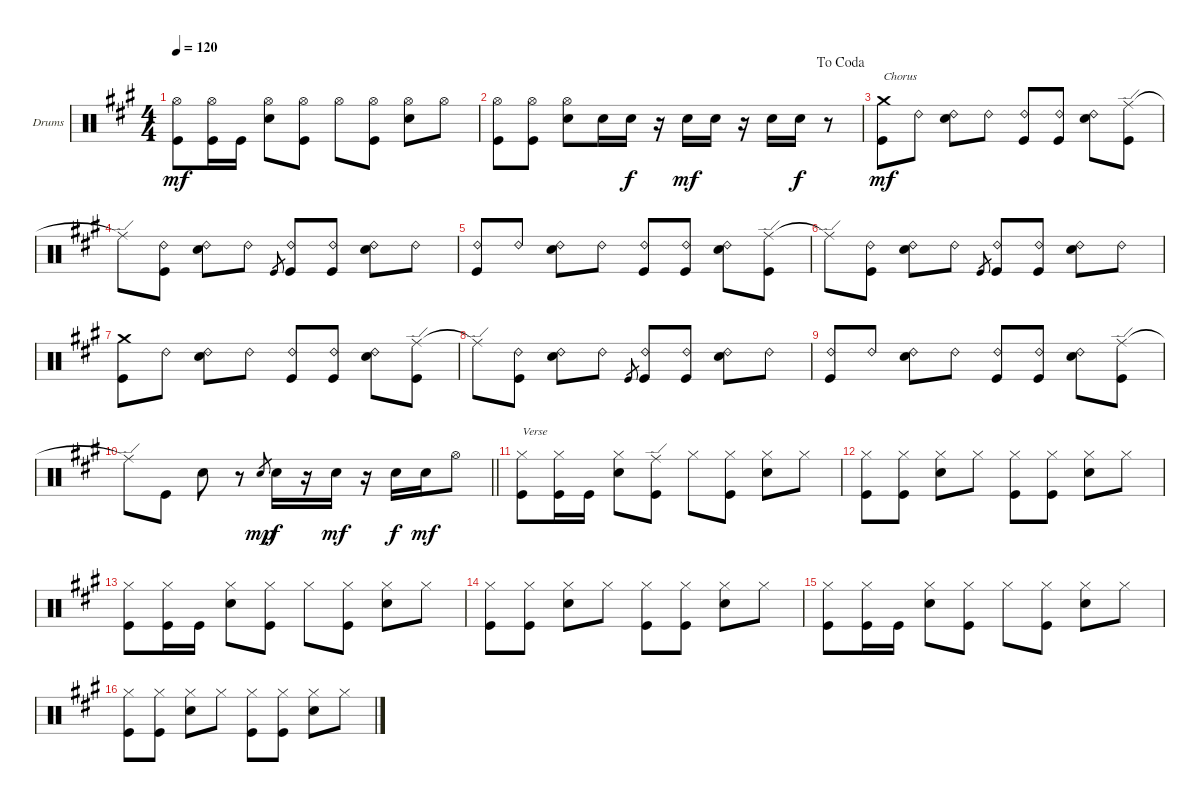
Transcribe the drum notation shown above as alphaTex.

\bracketExtendMode groupsimilarinstruments
\firstSystemTrackNameOrientation horizontal
\otherSystemsTrackNameOrientation horizontal
\track ("Drumkit" "Drums") {instrument percussion}
\staff {score}
\articulation defaults
\ts (4 4)
\tempo 120
\clef neutral
\ks a
("Kick (hit)" "Hi-Hat (open)").8{dy mf} ("Kick (hit)" "Hi-Hat (open)").16 "Kick (hit)".16 ("Snare (hit) 2" "Hi-Hat (open)").8 ("Kick (hit)" "Hi-Hat (open)").8 "Hi-Hat (open)".8 ("Hi-Hat (open)" "Kick (hit)").8 ("Hi-Hat (open)" "Snare (hit) 2").8 "Hi-Hat (open)".8 |
\jump dacoda
("Hi-Hat (open)" "Kick (hit)").8 ("Hi-Hat (open)" "Kick (hit)").8 ("Hi-Hat (open)" "Snare (hit) 2").8 "Snare (hit) 2".16 "Snare (hit) 2".16{dy f} r.16 "Snare (hit) 2".16{dy mf} "Snare (hit) 2".16 r.16 "Snare (hit) 2".16 "Snare (hit) 2".16{dy f} r.8 |
("Kick (hit)" "Crash medium (hit)").8{txt "Chorus" dy mf} "Ride (bell) 2".8 ("Ride (bell) 2" "Snare (hit) 2").8 "Ride (bell) 2".8 ("Ride (bell) 2" "Kick (hit)").8 ("Ride (bell) 2" "Kick (hit)").8 ("Ride (bell) 2" "Snare (hit) 2").8 ("Ride (edge)" "Kick (hit)").8 |
"Ride (edge)"{t}.8 ("Kick (hit)" "Ride (bell) 2").8 ("Snare (hit) 2" "Ride (bell) 2").8 "Ride (bell) 2".8 "Kick (hit)".8{gr} ("Kick (hit)" "Ride (bell) 2").8 ("Kick (hit)" "Ride (bell) 2").8 ("Snare (hit) 2" "Ride (bell) 2").8 "Ride (bell) 2".8 |
("Kick (hit)" "Ride (bell) 2").8 "Ride (bell) 2".8 ("Ride (bell) 2" "Snare (hit) 2").8 "Ride (bell) 2".8 ("Ride (bell) 2" "Kick (hit)").8 ("Ride (bell) 2" "Kick (hit)").8 ("Ride (bell) 2" "Snare (hit) 2").8 ("Ride (edge)" "Kick (hit)").8 |
"Ride (edge)"{t}.8 ("Kick (hit)" "Ride (bell) 2").8 ("Snare (hit) 2" "Ride (bell) 2").8 "Ride (bell) 2".8 "Kick (hit)".8{gr} ("Kick (hit)" "Ride (bell) 2").8 ("Kick (hit)" "Ride (bell) 2").8 ("Snare (hit) 2" "Ride (bell) 2").8 "Ride (bell) 2".8 |
("Kick (hit)" "Crash medium (hit)").8 "Ride (bell) 2".8 ("Ride (bell) 2" "Snare (hit) 2").8 "Ride (bell) 2".8 ("Ride (bell) 2" "Kick (hit)").8 ("Ride (bell) 2" "Kick (hit)").8 ("Ride (bell) 2" "Snare (hit) 2").8 ("Ride (edge)" "Kick (hit)").8 |
"Ride (edge)"{t}.8 ("Kick (hit)" "Ride (bell) 2").8 ("Snare (hit) 2" "Ride (bell) 2").8 "Ride (bell) 2".8 "Kick (hit)".8{gr} ("Kick (hit)" "Ride (bell) 2").8 ("Kick (hit)" "Ride (bell) 2").8 ("Snare (hit) 2" "Ride (bell) 2").8 "Ride (bell) 2".8 |
("Kick (hit)" "Ride (bell) 2").8 "Ride (bell) 2".8 ("Ride (bell) 2" "Snare (hit) 2").8 "Ride (bell) 2".8 ("Ride (bell) 2" "Kick (hit)").8 ("Ride (bell) 2" "Kick (hit)").8 ("Ride (bell) 2" "Snare (hit) 2").8 ("Ride (edge)" "Kick (hit)").8 |
\barLineRight lightlight "Ride (edge)"{t}.8 "Kick (hit)".8 "Snare (hit) 2".8
r.8 "Snare (hit) 2".8{gr dy mp} "Snare (hit) 2".16{dy f} r.16 "Snare (hit) 2".16{dy mf} r.16 "Snare (hit) 2".16{dy f} "Snare (hit) 2".16{dy mf} "Hi-Hat (open)".8 |
("Kick (hit)" "Hi-Hat (closed)").8{txt "Verse"} ("Kick (hit)" "Hi-Hat (closed)").16 "Kick (hit)".16 ("Snare (hit) 2" "Hi-Hat (closed)").8 ("Kick (hit)" "Ride (edge)").8 "Hi-Hat (closed)".8 ("Hi-Hat (closed)" "Kick (hit)").8 ("Hi-Hat (closed)" "Snare (hit) 2").8 "Hi-Hat (closed)".8 |
("Hi-Hat (closed)" "Kick (hit)").8 ("Hi-Hat (closed)" "Kick (hit)").8 ("Hi-Hat (closed)" "Snare (hit) 2").8 "Hi-Hat (closed)".8 ("Hi-Hat (closed)" "Kick (hit)").8 ("Hi-Hat (closed)" "Kick (hit)").8 ("Hi-Hat (closed)" "Snare (hit) 2").8 "Hi-Hat (closed)".8 |
("Kick (hit)" "Hi-Hat (closed)").8 ("Kick (hit)" "Hi-Hat (closed)").16 "Kick (hit)".16 ("Snare (hit) 2" "Hi-Hat (closed)").8 ("Kick (hit)" "Hi-Hat (closed)").8 "Hi-Hat (closed)".8 ("Hi-Hat (closed)" "Kick (hit)").8 ("Hi-Hat (closed)" "Snare (hit) 2").8 "Hi-Hat (closed)".8 |
("Hi-Hat (closed)" "Kick (hit)").8 ("Hi-Hat (closed)" "Kick (hit)").8 ("Hi-Hat (closed)" "Snare (hit) 2").8 "Hi-Hat (closed)".8 ("Hi-Hat (closed)" "Kick (hit)").8 ("Hi-Hat (closed)" "Kick (hit)").8 ("Hi-Hat (closed)" "Snare (hit) 2").8 "Hi-Hat (closed)".8 |
("Kick (hit)" "Hi-Hat (closed)").8 ("Kick (hit)" "Hi-Hat (closed)").16 "Kick (hit)".16 ("Snare (hit) 2" "Hi-Hat (closed)").8 ("Kick (hit)" "Hi-Hat (closed)").8 "Hi-Hat (closed)".8 ("Hi-Hat (closed)" "Kick (hit)").8 ("Hi-Hat (closed)" "Snare (hit) 2").8 "Hi-Hat (closed)".8 |
("Hi-Hat (closed)" "Kick (hit)").8 ("Hi-Hat (closed)" "Kick (hit)").8 ("Hi-Hat (closed)" "Snare (hit) 2").8 "Hi-Hat (closed)".8 ("Hi-Hat (closed)" "Kick (hit)").8 ("Hi-Hat (closed)" "Kick (hit)").8 ("Hi-Hat (closed)" "Snare (hit) 2").8 "Hi-Hat (closed)".8
